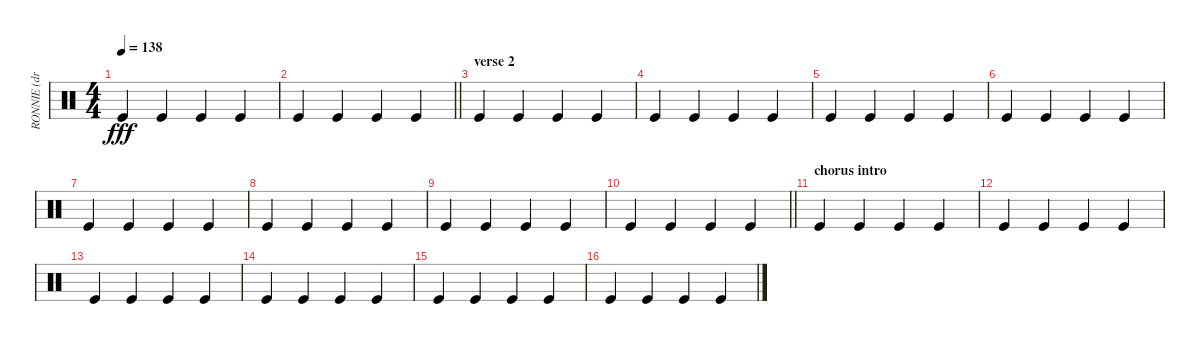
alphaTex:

\track ("RONNIE (drums)" "RONNIE (dr") {instrument percussion}
\staff {score}
\articulation defaults
\ts (4 4)
\tempo 138
\clef neutral
\ks c "Kick (hit)".4{dy fff} "Kick (hit)".4 "Kick (hit)".4 "Kick (hit)".4
|
\barLineRight lightlight "Kick (hit)".4 "Kick (hit)".4 "Kick (hit)".4 "Kick (hit)".4
|
\section ("" "verse 2")
"Kick (hit)".4 "Kick (hit)".4 "Kick (hit)".4 "Kick (hit)".4 |
"Kick (hit)".4 "Kick (hit)".4 "Kick (hit)".4 "Kick (hit)".4 |
"Kick (hit)".4 "Kick (hit)".4 "Kick (hit)".4 "Kick (hit)".4 |
"Kick (hit)".4 "Kick (hit)".4 "Kick (hit)".4 "Kick (hit)".4 |
"Kick (hit)".4 "Kick (hit)".4 "Kick (hit)".4 "Kick (hit)".4 |
"Kick (hit)".4 "Kick (hit)".4 "Kick (hit)".4 "Kick (hit)".4 |
"Kick (hit)".4 "Kick (hit)".4 "Kick (hit)".4 "Kick (hit)".4 |
\barLineRight lightlight "Kick (hit)".4 "Kick (hit)".4 "Kick (hit)".4 "Kick (hit)".4
|
\section ("" "chorus intro")
"Kick (hit)".4 "Kick (hit)".4 "Kick (hit)".4 "Kick (hit)".4 |
"Kick (hit)".4 "Kick (hit)".4 "Kick (hit)".4 "Kick (hit)".4 |
"Kick (hit)".4 "Kick (hit)".4 "Kick (hit)".4 "Kick (hit)".4 |
"Kick (hit)".4 "Kick (hit)".4 "Kick (hit)".4 "Kick (hit)".4 |
"Kick (hit)".4 "Kick (hit)".4 "Kick (hit)".4 "Kick (hit)".4 |
"Kick (hit)".4 "Kick (hit)".4 "Kick (hit)".4 "Kick (hit)".4
